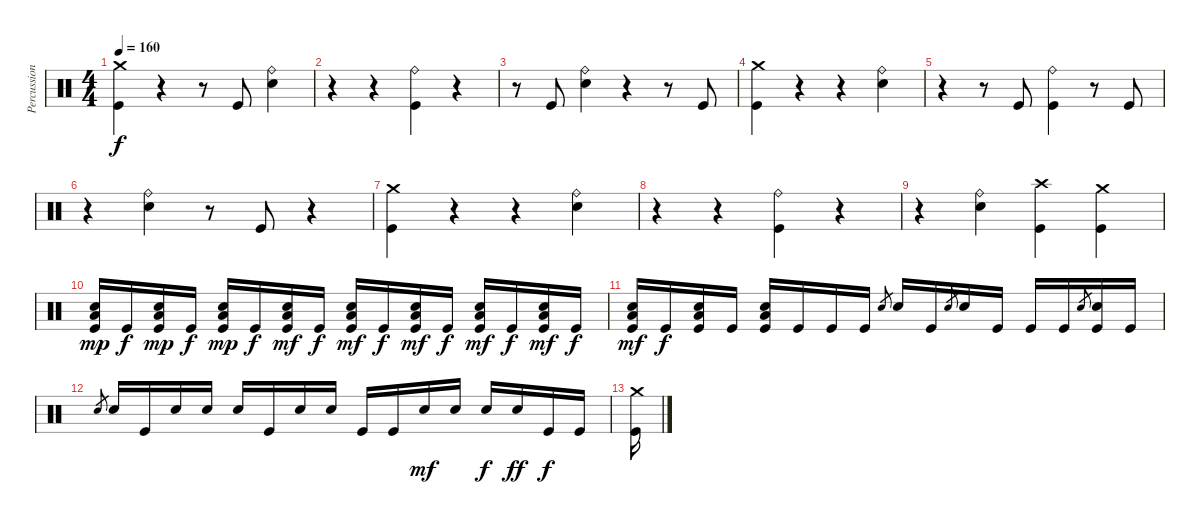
\track ("Percussion" "Percussion") {instrument percussion}
\staff {score}
\articulation defaults
\ts (4 4)
\tempo 160
\clef neutral
\ks c
("Crash medium (hit)" "Kick (hit)").4{dy f} r.4 r.8 "Kick (hit)".8 ("Ride (bell)" "Snare (hit) 2").4 |
r.4 r.4 ("Ride (bell)" "Kick (hit)").4 r.4 |
r.8 "Kick (hit)".8 ("Ride (bell)" "Snare (hit) 2").4 r.4 r.8 "Kick (hit)".8 |
("Crash medium (hit)" "Kick (hit)").4 r.4 r.4 ("Ride (bell)" "Snare (hit) 2").4 |
r.4 r.8 "Kick (hit)".8 ("Ride (bell)" "Kick (hit)").4 r.8 "Kick (hit)".8 |
r.4 ("Ride (bell)" "Snare (hit) 2").4 r.8 "Kick (hit)".8 r.4 |
("Crash medium (hit)" "Kick (hit)").4 r.4 r.4 ("Ride (bell)" "Snare (hit) 2").4 |
r.4 r.4 ("Ride (bell)" "Kick (hit)").4 r.4 |
r.4 ("Ride (bell)" "Snare (hit) 2").4 ("Crash high (hit)" "Kick (hit)").4 ("Crash medium (hit)" "Kick (hit)").4 |
("Snare (hit) 2" "Low Floor Tom (hit)" "Kick (hit)").16{dy mp} "Kick (hit)".16{dy f} ("Snare (hit) 2" "Low Floor Tom (hit)" "Kick (hit)").16{dy mp} "Kick (hit)".16{dy f} ("Snare (hit) 2" "Low Floor Tom (hit)" "Kick (hit)").16{dy mp} "Kick (hit)".16{dy f} ("Snare (hit) 2" "Low Floor Tom (hit)" "Kick (hit)").16{dy mf} "Kick (hit)".16{dy f} ("Snare (hit) 2" "Low Floor Tom (hit)" "Kick (hit)").16{dy mf} "Kick (hit)".16{dy f} ("Snare (hit) 2" "Low Floor Tom (hit)" "Kick (hit)").16{dy mf} "Kick (hit)".16{dy f} ("Snare (hit) 2" "Low Floor Tom (hit)" "Kick (hit)").16{dy mf} "Kick (hit)".16{dy f} ("Snare (hit) 2" "Low Floor Tom (hit)" "Kick (hit)").16{dy mf} "Kick (hit)".16{dy f} |
("Snare (hit) 2" "Low Floor Tom (hit)" "Kick (hit)").16{dy mf} "Kick (hit)".16{dy f} ("Snare (hit) 2" "Low Floor Tom (hit)" "Kick (hit)").16 "Kick (hit)".16 ("Snare (hit) 2" "Low Floor Tom (hit)" "Kick (hit)").16 "Kick (hit)".16 "Kick (hit)".16 "Kick (hit)".16 "Snare (hit) 2".8{gr} "Snare (hit) 2".16 "Kick (hit)".16 "Snare (hit) 2".8{gr} "Snare (hit) 2".16 "Kick (hit)".16 "Kick (hit)".16 "Kick (hit)".16 "Snare (hit) 2".8{gr} ("Snare (hit) 2" "Kick (hit)").16 "Kick (hit)".16 |
"Snare (hit) 2".8{gr} "Snare (hit) 2".16 "Kick (hit)".16 "Snare (hit) 2".16 "Snare (hit) 2".16 "Snare (hit) 2".16 "Kick (hit)".16 "Snare (hit) 2".16 "Snare (hit) 2".16 "Kick (hit)".16 "Kick (hit)".16 "Snare (hit) 2".16{dy mf} "Snare (hit) 2".16 "Snare (hit) 2".16{dy f} "Snare (hit) 2".16{dy ff} "Kick (hit)".16{dy f} "Kick (hit)".16 |
("Crash medium (hit)" "Kick (hit)").16
